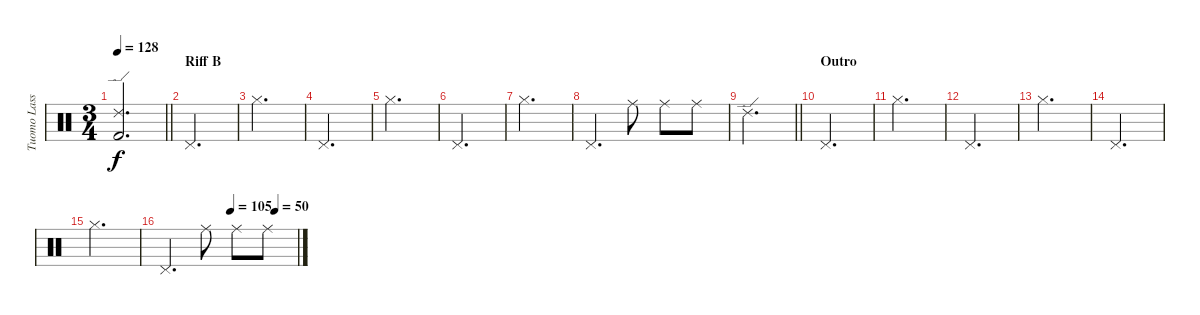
\track ("Tuomo Lassila" "Tuomo Lass") {instrument percussion}
\staff {score}
\articulation defaults
\ts (3 4)
\tempo 128
\clef neutral
\barLineRight lightlight
\ks c
("Ride (edge) 2" "Kick (hit) 2").2{d dy f} |
\section ("" "Riff B")
"Pedal Hi-Hat (hit)".2{d} |
"Hi-Hat (closed)".2{d} |
"Pedal Hi-Hat (hit)".2{d} |
"Hi-Hat (closed)".2{d} |
"Pedal Hi-Hat (hit)".2{d} |
"Hi-Hat (closed)".2{d} |
"Pedal Hi-Hat (hit)".4{d} "Ride (middle)".8 "Ride (middle)".8 "Ride (middle)".8 |
\barLineRight lightlight "Ride (edge) 2".2{d}
|
\section ("" "Outro")
"Pedal Hi-Hat (hit)".2{d} |
"Hi-Hat (closed)".2{d} |
"Pedal Hi-Hat (hit)".2{d} |
"Hi-Hat (closed)".2{d} |
"Pedal Hi-Hat (hit)".2{d} |
"Hi-Hat (closed)".2{d} |
\tempo (105 0.5)
\tempo (50 0.8333333333333334)
"Pedal Hi-Hat (hit)".4{d} "Ride (middle)".8 "Ride (middle)".8 "Ride (middle)".8
